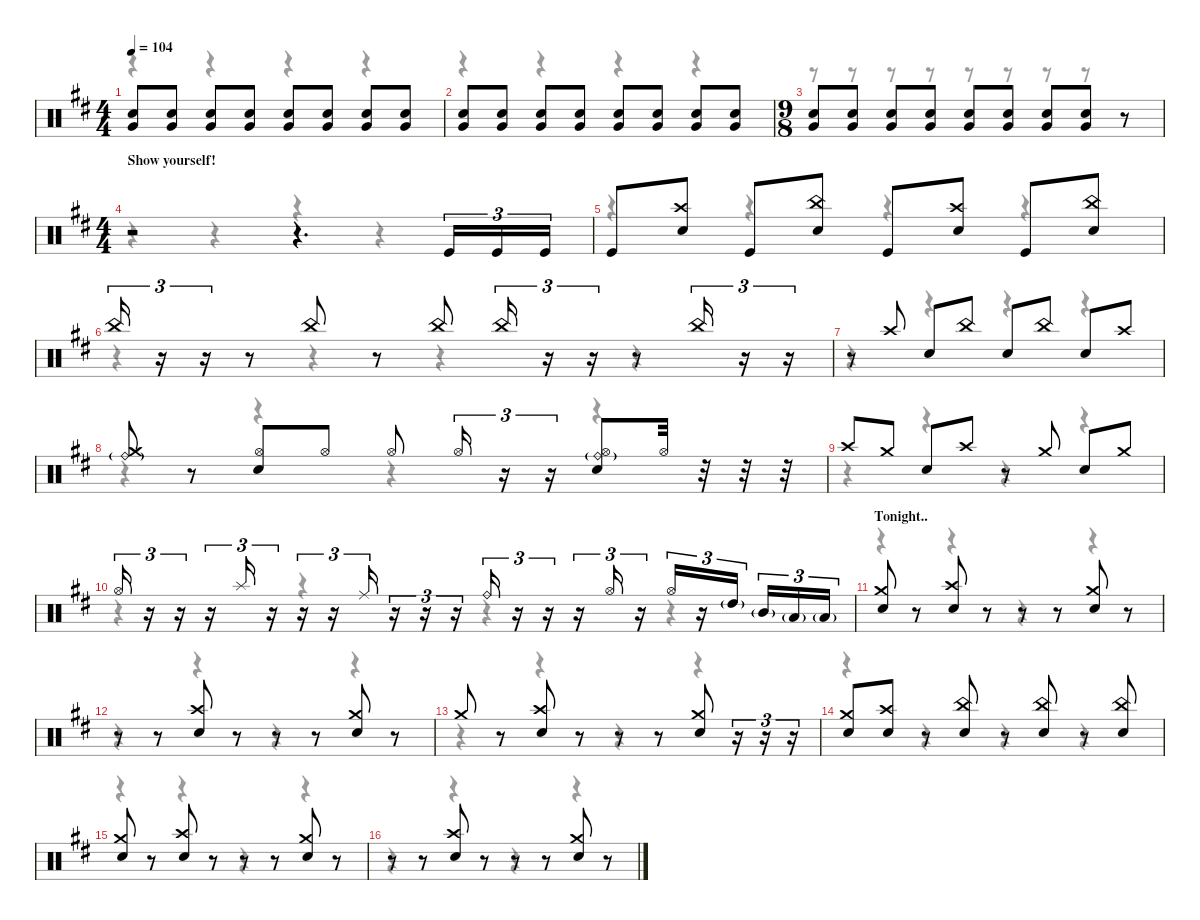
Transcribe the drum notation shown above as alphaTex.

\defaultSystemsLayout 4
\hideDynamics
\bracketExtendMode nobrackets
\singleTrackTrackNamePolicy hidden
\multiTrackTrackNamePolicy hidden
\firstSystemTrackNameMode fullname
\otherSystemsTrackNameOrientation horizontal
\track ("Drums" "drm.") {instrument percussion}
\staff {score}
\articulation defaults
\voice
\ts (4 4)
\tempo 104
\clef neutral
\ks bminor
("Very Low Tom (hit)"{acc forcenatural} "Snare (hit) 2"{acc forcenatural}).8{dy mf beam Up} ("Very Low Tom (hit)"{acc forcenatural} "Snare (hit) 2"{acc forcenatural}).8{dy mp beam Up} ("Very Low Tom (hit)"{acc forcenatural} "Snare (hit) 2"{acc forcenatural}).8{dy mf beam Up} ("Very Low Tom (hit)"{acc forcenatural} "Snare (hit) 2"{acc forcenatural}).8{dy mp beam Up} ("Very Low Tom (hit)"{acc forcenatural} "Snare (hit) 2"{acc forcenatural}).8{dy mf beam Up} ("Very Low Tom (hit)"{acc forcenatural} "Snare (hit) 2"{acc forcenatural}).8{beam Up} ("Very Low Tom (hit)"{acc forcenatural} "Snare (hit) 2"{acc forcenatural}).8{beam Up} ("Very Low Tom (hit)"{acc forcenatural} "Snare (hit) 2"{acc forcenatural}).8{beam Up} |
("Very Low Tom (hit)"{acc forcenatural} "Snare (hit) 2"{acc forcenatural}).8{beam Up} ("Very Low Tom (hit)"{acc forcenatural} "Snare (hit) 2"{acc forcenatural}).8{beam Up} ("Very Low Tom (hit)"{acc forcenatural} "Snare (hit) 2"{acc forcenatural}).8{beam Up} ("Very Low Tom (hit)"{acc forcenatural} "Snare (hit) 2"{acc forcenatural}).8{beam Up} ("Very Low Tom (hit)"{acc forcenatural} "Snare (hit) 2"{acc forcenatural}).8{beam Up} ("Very Low Tom (hit)"{acc forcenatural} "Snare (hit) 2"{acc forcenatural}).8{beam Up} ("Very Low Tom (hit)"{acc forcenatural} "Snare (hit) 2"{acc forcenatural}).8{beam Up} ("Very Low Tom (hit)"{acc forcenatural} "Snare (hit) 2"{acc forcenatural}).8{beam Up} |
\ts (9 8)
\beaming (8 2 2 2 2)
("Very Low Tom (hit)"{acc forcenatural} "Snare (hit) 2"{acc forcenatural}).8{beam Up} ("Very Low Tom (hit)"{acc forcenatural} "Snare (hit) 2"{acc forcenatural}).8{beam Up} ("Very Low Tom (hit)"{acc forcenatural} "Snare (hit) 2"{acc forcenatural}).8{beam Up} ("Very Low Tom (hit)"{acc forcenatural} "Snare (hit) 2"{acc forcenatural}).8{beam Up} ("Very Low Tom (hit)"{acc forcenatural} "Snare (hit) 2"{acc forcenatural}).8{dy f beam Up} ("Very Low Tom (hit)"{acc forcenatural} "Snare (hit) 2"{acc forcenatural}).8{beam Up} ("Very Low Tom (hit)"{acc forcenatural} "Snare (hit) 2"{acc forcenatural}).8{beam Up} ("Very Low Tom (hit)"{acc forcenatural} "Snare (hit) 2"{acc forcenatural}).8{beam Up} r.8{beam Up} |
\ts (4 4)
\beaming (8 2 2 2 2)
\section ("" "Show yourself!")
r.2{beam Up} r.4{d beam Up} "Kick (hit)"{acc forcenatural}.16{tu (3 2) beam Up} "Kick (hit)"{acc forcenatural}.16{tu (3 2) beam Up} "Kick (hit)"{acc forcenatural}.16{tu (3 2) beam Up} |
"Kick (hit)"{acc forcenatural}.8{beam Up} ("Crash high (hit)"{acc forcenatural} "Snare (hit) 2"{acc forcenatural}).8{dy mf beam Up} "Kick (hit)"{acc forcenatural}.8{dy f beam Up} ("China (hit)"{acc forcenatural} "Snare (hit) 2"{acc forcenatural}).8{dy mf beam Up} "Kick (hit)"{acc forcenatural}.8{dy f beam Up} ("Crash high (hit)"{acc forcenatural} "Snare (hit) 2"{acc forcenatural}).8{dy mf beam Up} "Kick (hit)"{acc forcenatural}.8{dy f beam Up} ("China (hit)"{acc forcenatural} "Snare (hit) 2"{acc forcenatural}).8{dy mf beam Up} |
"China (hit)"{acc forcenatural}.16{tu (3 2) beam Up} r.16{tu (3 2) beam Up} r.16{tu (3 2) beam Up} r.8{beam Up} "China (hit)"{acc forcenatural}.8{beam Up} r.8{beam Up} "China (hit)"{acc forcenatural}.8{beam Up} "China (hit)"{acc forcenatural}.16{tu (3 2) dy f beam Up} r.16{tu (3 2) beam Up} r.16{tu (3 2) beam Up} r.8{beam Up} "China (hit)"{acc forcenatural}.16{tu (3 2) beam Up} r.16{tu (3 2) beam Up} r.16{tu (3 2) beam Up} |
r.8{beam Up} "Crash high (hit)"{acc forcenatural}.8{dy mf beam Up} "Snare (hit) 2"{acc forcenatural}.8{dy f beam Up} "China (hit)"{acc forcenatural}.8{beam Up} "Snare (hit) 2"{acc forcenatural}.8{beam Up} "China (hit)"{acc forcenatural}.8{beam Up} "Snare (hit) 2"{acc forcenatural}.8{beam Up} "Crash high (hit)"{acc forcenatural}.8{dy mf beam Up} |
("Ride (bell)"{g acc forcenatural} "Crash medium (hit)"{acc forcenatural}).8{beam Up} r.8{beam Up} ("Hi-Hat (open)"{acc forcenatural} "Snare (hit) 2"{acc forcenatural}).8{beam Up} "Hi-Hat (open)"{acc forcenatural}.8{dy pp beam Up} "Hi-Hat (open)"{acc forcenatural}.8{dy mf beam Up} "Hi-Hat (open)"{acc forcenatural}.16{tu (3 2) dy pp beam Up} r.16{tu (3 2) beam Up} r.16{tu (3 2) beam Up} ("Ride (bell)"{g acc forcenatural} "Hi-Hat (open)"{acc forcenatural} "Snare (hit) 2"{acc forcenatural}).8{dy mf beam Up} "Hi-Hat (open)"{acc forcenatural}.32{dy pp beam Up} r.32{beam Up} r.32{beam Up} r.32{beam Up} |
"Crash high (hit)"{acc forcenatural}.8{dy mf beam Up} "Crash medium (hit)"{acc forcenatural}.8{beam Up} "Snare (hit) 2"{acc forcenatural}.8{dy f beam Up} "Crash high (hit)"{acc forcenatural}.8{dy mf beam Up} r.8{beam Up} "Crash medium (hit)"{acc forcenatural}.8{beam Up} "Snare (hit) 2"{acc forcenatural}.8{dy f beam Up} "Crash medium (hit)"{acc forcenatural}.8{dy mf beam Up} |
"Hi-Hat (open)"{acc forcenatural}.16{tu (3 2) dy mp beam Up} r.16{tu (3 2) beam Up} r.16{tu (3 2) beam Up} r.16{tu (3 2) beam Up} "Splash (hit)"{acc forcenatural}.16{tu (3 2) beam Up} r.16{tu (3 2) beam Up} r.16{tu (3 2) beam Up} r.16{tu (3 2) beam Up} "Ride (middle)"{acc forcenatural}.16{tu (3 2) beam Up} r.16{tu (3 2) beam Up} r.16{tu (3 2) beam Up} r.16{tu (3 2) beam Up} "Ride (bell)"{acc forcenatural}.16{tu (3 2) beam Up} r.16{tu (3 2) beam Up} r.16{tu (3 2) beam Up} r.16{tu (3 2) beam Up} "Hi-Hat (open)"{acc forcenatural}.16{tu (3 2) beam Up} r.16{tu (3 2) beam Up} "Hi-Hat (open)"{acc forcenatural}.16{tu (3 2) dy pp beam Up} r.16{tu (3 2) beam Up} "High Tom (hit)"{g acc forcenatural}.16{tu (3 2) dy f beam Up} "Mid Tom (hit)"{g acc forcenatural}.16{tu (3 2) beam Up} "Low Tom (hit)"{g acc forcenatural}.16{tu (3 2) beam Up} "Low Tom (hit)"{g acc forcenatural}.16{tu (3 2) beam Up} |
\section ("" "Tonight..")
("Crash medium (hit)"{acc forcenatural} "Snare (hit) 2"{acc forcenatural}).8{dy mf beam Up} r.8{beam Up} ("Crash high (hit)"{acc forcenatural} "Snare (hit) 2"{acc forcenatural}).8{beam Up} r.8{beam Up} r.8{beam Up} r.8{beam Up} ("Crash medium (hit)"{acc forcenatural} "Snare (hit) 2"{acc forcenatural}).8{beam Up} r.8{beam Up} |
r.8{beam Up} r.8{beam Up} ("Crash high (hit)"{acc forcenatural} "Snare (hit) 2"{acc forcenatural}).8{beam Up} r.8{beam Up} r.8{beam Up} r.8{beam Up} ("Crash medium (hit)"{acc forcenatural} "Snare (hit) 2"{acc forcenatural}).8{beam Up} r.8{beam Up} |
"Crash medium (hit)"{acc forcenatural}.8{beam Up} r.8{beam Up} ("Crash high (hit)"{acc forcenatural} "Snare (hit) 2"{acc forcenatural}).8{beam Up} r.8{beam Up} r.8{beam Up} r.8{beam Up} ("Crash medium (hit)"{acc forcenatural} "Snare (hit) 2"{acc forcenatural}).8{beam Up} r.16{tu (3 2) beam Up} r.16{tu (3 2) beam Up} r.16{tu (3 2) beam Up} |
("Crash medium (hit)"{acc forcenatural} "Snare (hit) 2"{acc forcenatural}).8{beam Up} ("Crash high (hit)"{acc forcenatural} "Snare (hit) 2"{acc forcenatural}).8{beam Up} r.8{beam Up} ("China (hit)"{acc forcenatural} "Snare (hit) 2"{acc forcenatural}).8{beam Up} r.8{beam Up} ("China (hit)"{acc forcenatural} "Snare (hit) 2"{acc forcenatural}).8{beam Up} r.8{beam Up} ("China (hit)"{acc forcenatural} "Snare (hit) 2"{acc forcenatural}).8{beam Up} |
("Crash medium (hit)"{acc forcenatural} "Snare (hit) 2"{acc forcenatural}).8{beam Up} r.8{beam Up} ("Crash high (hit)"{acc forcenatural} "Snare (hit) 2"{acc forcenatural}).8{beam Up} r.8{beam Up} r.8{beam Up} r.8{beam Up} ("Crash medium (hit)"{acc forcenatural} "Snare (hit) 2"{acc forcenatural}).8{beam Up} r.8{beam Up} |
r.8{beam Up} r.8{beam Up} ("Crash high (hit)"{acc forcenatural} "Snare (hit) 2"{acc forcenatural}).8{beam Up} r.8{beam Up} r.8{beam Up} r.8{beam Up} ("Crash medium (hit)"{acc forcenatural} "Snare (hit) 2"{acc forcenatural}).8{beam Up} r.8{beam Up}
\voice
\clef neutral
\ottava regular
\simile none
\ks bminor
r.4{dy mf beam Down} r.4{beam Down} r.4{beam Down} r.4{beam Down} |
r.4{beam Down} r.4{beam Down} r.4{beam Down} r.4{beam Down} |
r.8{beam Down} r.8{beam Down} r.8{beam Down} r.8{beam Down} r.8{beam Down} r.8{beam Down} r.8{beam Down} r.8{beam Down} r.8{beam Down} |
r.4{beam Down} r.4{beam Down} r.4{beam Down} r.4{beam Down} |
r.4{beam Down} r.4{beam Down} r.4{beam Down} r.4{beam Down} |
r.4{beam Down} r.4{beam Down} r.4{beam Down} r.4{beam Down} |
r.4{beam Down} r.4{beam Down} r.4{beam Down} r.4{beam Down} |
r.4{beam Down} r.4{beam Down} r.4{beam Down} r.4{beam Down} |
r.4{beam Down} r.4{beam Down} r.4{beam Down} r.4{beam Down} |
r.4{beam Down} r.4{beam Down} r.4{beam Down} r.4{beam Down} |
r.4{beam Down} r.4{beam Down} r.4{beam Down} r.4{beam Down} |
r.4{beam Down} r.4{beam Down} r.4{beam Down} r.4{beam Down} |
r.4{beam Down} r.4{beam Down} r.4{beam Down} r.4{beam Down} |
r.4{beam Down} r.4{beam Down} r.4{beam Down} r.4{beam Down} |
r.4{beam Down} r.4{beam Down} r.4{beam Down} r.4{beam Down} |
r.4{beam Down} r.4{beam Down} r.4{beam Down} r.4{beam Down}
